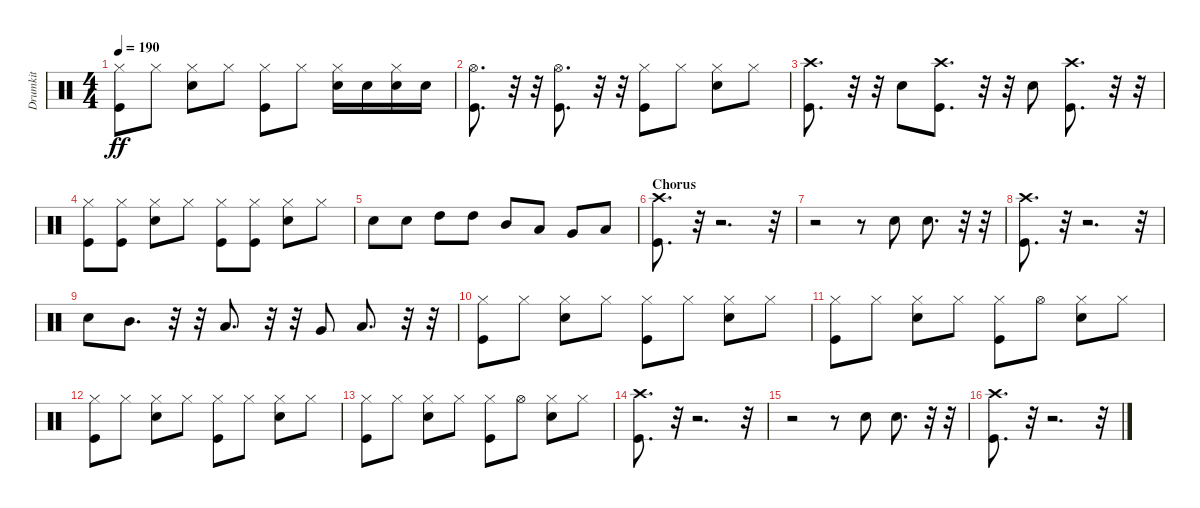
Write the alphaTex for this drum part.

\track ("Drumkit" "Drumkit") {instrument percussion}
\staff {score}
\articulation defaults
\ts (4 4)
\tempo 190
\clef neutral
\ks c
("Kick (hit)" "Hi-Hat (closed)").8{dy ff} "Hi-Hat (closed)".8 ("Snare (hit) 2" "Hi-Hat (closed)").8 "Hi-Hat (closed)".8 ("Kick (hit)" "Hi-Hat (closed)").8 "Hi-Hat (closed)".8 ("Snare (hit) 2" "Hi-Hat (closed)").16 "Snare (hit) 2".16 ("Snare (hit) 2" "Hi-Hat (closed)").16 "Snare (hit) 2".16 |
("Kick (hit)" "Hi-Hat (open)").8{d} r.32 r.32 ("Kick (hit)" "Hi-Hat (open)").8{d} r.32 r.32 ("Kick (hit)" "Hi-Hat (closed)").8 "Hi-Hat (closed)".8 ("Snare (hit) 2" "Hi-Hat (closed)").8 "Hi-Hat (closed)".8 |
("Kick (hit)" "Crash high (hit)").8{d} r.32 r.32 "Snare (hit) 2".8 ("Kick (hit)" "Crash high (hit)").8{d} r.32 r.32 "Snare (hit) 2".8 ("Kick (hit)" "Crash high (hit)").8{d} r.32 r.32 |
("Kick (hit)" "Hi-Hat (closed)").8 ("Kick (hit)" "Hi-Hat (closed)").8 ("Snare (hit) 2" "Hi-Hat (closed)").8 "Hi-Hat (closed)".8 ("Kick (hit)" "Hi-Hat (closed)").8 ("Kick (hit)" "Hi-Hat (closed)").8 ("Snare (hit) 2" "Hi-Hat (closed)").8 "Hi-Hat (closed)".8 |
"Snare (hit) 2".8 "Snare (hit) 2".8 "High Tom (hit)".8 "High Tom (hit)".8 "Mid Tom (hit)".8 "Low Tom (hit)".8 "Very Low Tom (hit)".8 "Low Floor Tom (hit)".8 |
\section ("" "Chorus")
("Kick (hit)" "Crash high (hit)").8{d} r.32 r.2{d} r.32 |
r.2 r.8 "Snare (hit) 2".8 "Snare (hit) 2".8{d} r.32 r.32 |
("Kick (hit)" "Crash high (hit)").8{d} r.32 r.2{d} r.32 |
"Snare (hit) 2".8 "Mid Tom (hit)".8{d} r.32 r.32 "Low Tom (hit)".8{d} r.32 r.32 "Very Low Tom (hit)".8 "Low Floor Tom (hit)".8{d} r.32 r.32 |
("Kick (hit)" "Hi-Hat (closed)").8 "Hi-Hat (closed)".8 ("Snare (hit) 2" "Hi-Hat (closed)").8 "Hi-Hat (closed)".8 ("Kick (hit)" "Hi-Hat (closed)").8 "Hi-Hat (closed)".8 ("Snare (hit) 2" "Hi-Hat (closed)").8 "Hi-Hat (closed)".8 |
("Kick (hit)" "Hi-Hat (closed)").8 "Hi-Hat (closed)".8 ("Snare (hit) 2" "Hi-Hat (closed)").8 "Hi-Hat (closed)".8 ("Kick (hit)" "Hi-Hat (closed)").8 "Hi-Hat (open)".8 ("Snare (hit) 2" "Hi-Hat (closed)").8 "Hi-Hat (closed)".8 |
("Kick (hit)" "Hi-Hat (closed)").8 "Hi-Hat (closed)".8 ("Snare (hit) 2" "Hi-Hat (closed)").8 "Hi-Hat (closed)".8 ("Kick (hit)" "Hi-Hat (closed)").8 "Hi-Hat (closed)".8 ("Snare (hit) 2" "Hi-Hat (closed)").8 "Hi-Hat (closed)".8 |
("Kick (hit)" "Hi-Hat (closed)").8 "Hi-Hat (closed)".8 ("Snare (hit) 2" "Hi-Hat (closed)").8 "Hi-Hat (closed)".8 ("Kick (hit)" "Hi-Hat (closed)").8 "Hi-Hat (open)".8 ("Snare (hit) 2" "Hi-Hat (closed)").8 "Hi-Hat (closed)".8 |
("Kick (hit)" "Crash high (hit)").8{d} r.32 r.2{d} r.32 |
r.2 r.8 "Snare (hit) 2".8 "Snare (hit) 2".8{d} r.32 r.32 |
("Kick (hit)" "Crash high (hit)").8{d} r.32 r.2{d} r.32
